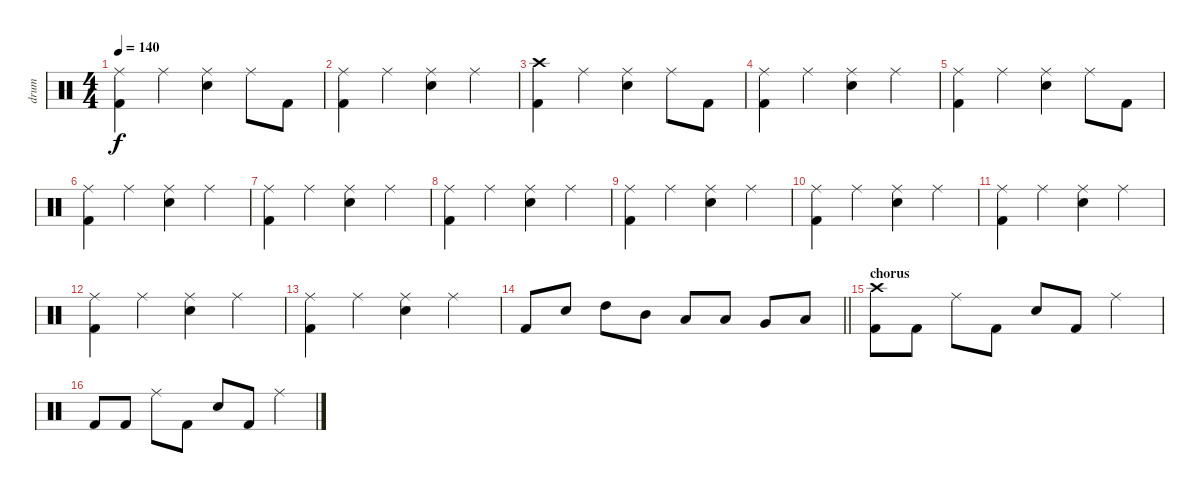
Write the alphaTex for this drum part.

\track ("drum" "drum") {instrument percussion}
\staff {score}
\articulation defaults
\ts (4 4)
\tempo 140
\clef neutral
\ks c
("Ride (middle)" "Kick (hit) 2").4{dy f} "Ride (middle)".4 ("Ride (middle)" "Electric Snare (hit)").4 "Ride (middle)".8 "Kick (hit) 2".8 |
("Ride (middle)" "Kick (hit) 2").4 "Ride (middle)".4 ("Ride (middle)" "Electric Snare (hit)").4 "Ride (middle)".4 |
("Crash high (hit)" "Kick (hit) 2").4 "Ride (middle)".4 ("Ride (middle)" "Electric Snare (hit)").4 "Ride (middle)".8 "Kick (hit) 2".8 |
("Ride (middle)" "Kick (hit) 2").4 "Ride (middle)".4 ("Ride (middle)" "Electric Snare (hit)").4 "Ride (middle)".4 |
("Ride (middle)" "Kick (hit) 2").4 "Ride (middle)".4 ("Ride (middle)" "Electric Snare (hit)").4 "Ride (middle)".8 "Kick (hit) 2".8 |
("Ride (middle)" "Kick (hit) 2").4 "Ride (middle)".4 ("Ride (middle)" "Electric Snare (hit)").4 "Ride (middle)".4 |
("Ride (middle)" "Kick (hit) 2").4 "Ride (middle)".4 ("Ride (middle)" "Electric Snare (hit)").4 "Ride (middle)".4 |
("Ride (middle)" "Kick (hit) 2").4 "Ride (middle)".4 ("Ride (middle)" "Electric Snare (hit)").4 "Ride (middle)".4 |
("Ride (middle)" "Kick (hit) 2").4 "Ride (middle)".4 ("Ride (middle)" "Electric Snare (hit)").4 "Ride (middle)".4 |
("Ride (middle)" "Kick (hit) 2").4 "Ride (middle)".4 ("Ride (middle)" "Electric Snare (hit)").4 "Ride (middle)".4 |
("Ride (middle)" "Kick (hit) 2").4 "Ride (middle)".4 ("Ride (middle)" "Electric Snare (hit)").4 "Ride (middle)".4 |
("Ride (middle)" "Kick (hit) 2").4 "Ride (middle)".4 ("Ride (middle)" "Electric Snare (hit)").4 "Ride (middle)".4 |
("Ride (middle)" "Kick (hit) 2").4 "Ride (middle)".4 ("Ride (middle)" "Electric Snare (hit)").4 "Ride (middle)".4 |
\barLineRight lightlight "Kick (hit) 2".8 "Electric Snare (hit)".8 "High Tom (hit)".8 "Mid Tom (hit)".8 "Low Tom (hit)".8 "Low Tom (hit)".8 "Very Low Tom (hit)".8 "Low Floor Tom (hit)".8
|
\section ("" "chorus")
("Crash high (hit)" "Kick (hit) 2").8 "Kick (hit) 2".8 "Ride (middle)".8 "Kick (hit) 2".8 "Electric Snare (hit)".8 "Kick (hit) 2".8 "Ride (middle)".4 |
"Kick (hit) 2".8 "Kick (hit) 2".8 "Ride (middle)".8 "Kick (hit) 2".8 "Electric Snare (hit)".8 "Kick (hit) 2".8 "Ride (middle)".4
